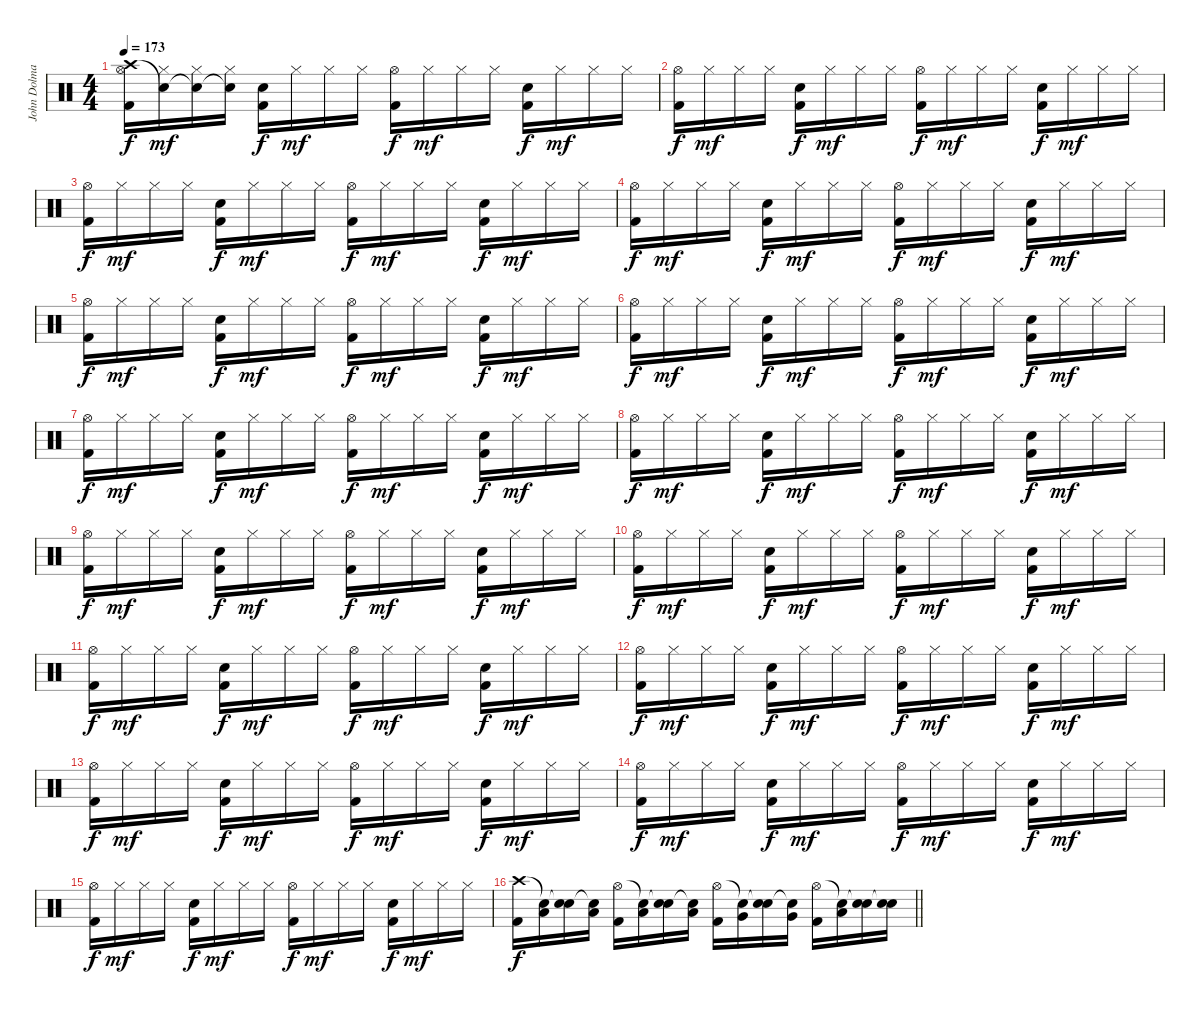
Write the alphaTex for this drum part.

\track ("John Dolmayan" "John Dolma") {instrument percussion}
\staff {score}
\articulation defaults
\ts (4 4)
\tempo 173
\clef neutral
\ks c
("Crash high (hit)" "Hi-Hat (open)" "Kick (hit) 2").16{dy f} ("Snare (hit)"{t} "Hi-Hat (closed)").16{dy mf} ("Snare (hit)"{t} "Hi-Hat (closed)").16 ("Snare (hit)"{t} "Hi-Hat (closed)").16 ("Electric Snare (hit)" "Kick (hit) 2").16{dy f} "Hi-Hat (closed)".16{dy mf} "Hi-Hat (closed)".16 "Hi-Hat (closed)".16 ("Hi-Hat (open)" "Kick (hit) 2").16{dy f} "Hi-Hat (closed)".16{dy mf} "Hi-Hat (closed)".16 "Hi-Hat (closed)".16 ("Electric Snare (hit)" "Kick (hit) 2").16{dy f} "Hi-Hat (closed)".16{dy mf} "Hi-Hat (closed)".16 "Hi-Hat (closed)".16 |
("Hi-Hat (open)" "Kick (hit) 2").16{dy f} "Hi-Hat (closed)".16{dy mf} "Hi-Hat (closed)".16 "Hi-Hat (closed)".16 ("Electric Snare (hit)" "Kick (hit) 2").16{dy f} "Hi-Hat (closed)".16{dy mf} "Hi-Hat (closed)".16 "Hi-Hat (closed)".16 ("Hi-Hat (open)" "Kick (hit) 2").16{dy f} "Hi-Hat (closed)".16{dy mf} "Hi-Hat (closed)".16 "Hi-Hat (closed)".16 ("Electric Snare (hit)" "Kick (hit) 2").16{dy f} "Hi-Hat (closed)".16{dy mf} "Hi-Hat (closed)".16 "Hi-Hat (closed)".16 |
("Hi-Hat (open)" "Kick (hit) 2").16{dy f} "Hi-Hat (closed)".16{dy mf} "Hi-Hat (closed)".16 "Hi-Hat (closed)".16 ("Electric Snare (hit)" "Kick (hit) 2").16{dy f} "Hi-Hat (closed)".16{dy mf} "Hi-Hat (closed)".16 "Hi-Hat (closed)".16 ("Hi-Hat (open)" "Kick (hit) 2").16{dy f} "Hi-Hat (closed)".16{dy mf} "Hi-Hat (closed)".16 "Hi-Hat (closed)".16 ("Electric Snare (hit)" "Kick (hit) 2").16{dy f} "Hi-Hat (closed)".16{dy mf} "Hi-Hat (closed)".16 "Hi-Hat (closed)".16 |
("Hi-Hat (open)" "Kick (hit) 2").16{dy f} "Hi-Hat (closed)".16{dy mf} "Hi-Hat (closed)".16 "Hi-Hat (closed)".16 ("Electric Snare (hit)" "Kick (hit) 2").16{dy f} "Hi-Hat (closed)".16{dy mf} "Hi-Hat (closed)".16 "Hi-Hat (closed)".16 ("Hi-Hat (open)" "Kick (hit) 2").16{dy f} "Hi-Hat (closed)".16{dy mf} "Hi-Hat (closed)".16 "Hi-Hat (closed)".16 ("Electric Snare (hit)" "Kick (hit) 2").16{dy f} "Hi-Hat (closed)".16{dy mf} "Hi-Hat (closed)".16 "Hi-Hat (closed)".16 |
("Hi-Hat (open)" "Kick (hit) 2").16{dy f} "Hi-Hat (closed)".16{dy mf} "Hi-Hat (closed)".16 "Hi-Hat (closed)".16 ("Electric Snare (hit)" "Kick (hit) 2").16{dy f} "Hi-Hat (closed)".16{dy mf} "Hi-Hat (closed)".16 "Hi-Hat (closed)".16 ("Hi-Hat (open)" "Kick (hit) 2").16{dy f} "Hi-Hat (closed)".16{dy mf} "Hi-Hat (closed)".16 "Hi-Hat (closed)".16 ("Electric Snare (hit)" "Kick (hit) 2").16{dy f} "Hi-Hat (closed)".16{dy mf} "Hi-Hat (closed)".16 "Hi-Hat (closed)".16 |
("Hi-Hat (open)" "Kick (hit) 2").16{dy f} "Hi-Hat (closed)".16{dy mf} "Hi-Hat (closed)".16 "Hi-Hat (closed)".16 ("Electric Snare (hit)" "Kick (hit) 2").16{dy f} "Hi-Hat (closed)".16{dy mf} "Hi-Hat (closed)".16 "Hi-Hat (closed)".16 ("Hi-Hat (open)" "Kick (hit) 2").16{dy f} "Hi-Hat (closed)".16{dy mf} "Hi-Hat (closed)".16 "Hi-Hat (closed)".16 ("Electric Snare (hit)" "Kick (hit) 2").16{dy f} "Hi-Hat (closed)".16{dy mf} "Hi-Hat (closed)".16 "Hi-Hat (closed)".16 |
("Hi-Hat (open)" "Kick (hit) 2").16{dy f} "Hi-Hat (closed)".16{dy mf} "Hi-Hat (closed)".16 "Hi-Hat (closed)".16 ("Electric Snare (hit)" "Kick (hit) 2").16{dy f} "Hi-Hat (closed)".16{dy mf} "Hi-Hat (closed)".16 "Hi-Hat (closed)".16 ("Hi-Hat (open)" "Kick (hit) 2").16{dy f} "Hi-Hat (closed)".16{dy mf} "Hi-Hat (closed)".16 "Hi-Hat (closed)".16 ("Electric Snare (hit)" "Kick (hit) 2").16{dy f} "Hi-Hat (closed)".16{dy mf} "Hi-Hat (closed)".16 "Hi-Hat (closed)".16 |
("Hi-Hat (open)" "Kick (hit) 2").16{dy f} "Hi-Hat (closed)".16{dy mf} "Hi-Hat (closed)".16 "Hi-Hat (closed)".16 ("Electric Snare (hit)" "Kick (hit) 2").16{dy f} "Hi-Hat (closed)".16{dy mf} "Hi-Hat (closed)".16 "Hi-Hat (closed)".16 ("Hi-Hat (open)" "Kick (hit) 2").16{dy f} "Hi-Hat (closed)".16{dy mf} "Hi-Hat (closed)".16 "Hi-Hat (closed)".16 ("Electric Snare (hit)" "Kick (hit) 2").16{dy f} "Hi-Hat (closed)".16{dy mf} "Hi-Hat (closed)".16 "Hi-Hat (closed)".16 |
("Hi-Hat (open)" "Kick (hit) 2").16{dy f} "Hi-Hat (closed)".16{dy mf} "Hi-Hat (closed)".16 "Hi-Hat (closed)".16 ("Electric Snare (hit)" "Kick (hit) 2").16{dy f} "Hi-Hat (closed)".16{dy mf} "Hi-Hat (closed)".16 "Hi-Hat (closed)".16 ("Hi-Hat (open)" "Kick (hit) 2").16{dy f} "Hi-Hat (closed)".16{dy mf} "Hi-Hat (closed)".16 "Hi-Hat (closed)".16 ("Electric Snare (hit)" "Kick (hit) 2").16{dy f} "Hi-Hat (closed)".16{dy mf} "Hi-Hat (closed)".16 "Hi-Hat (closed)".16 |
("Hi-Hat (open)" "Kick (hit) 2").16{dy f} "Hi-Hat (closed)".16{dy mf} "Hi-Hat (closed)".16 "Hi-Hat (closed)".16 ("Electric Snare (hit)" "Kick (hit) 2").16{dy f} "Hi-Hat (closed)".16{dy mf} "Hi-Hat (closed)".16 "Hi-Hat (closed)".16 ("Hi-Hat (open)" "Kick (hit) 2").16{dy f} "Hi-Hat (closed)".16{dy mf} "Hi-Hat (closed)".16 "Hi-Hat (closed)".16 ("Electric Snare (hit)" "Kick (hit) 2").16{dy f} "Hi-Hat (closed)".16{dy mf} "Hi-Hat (closed)".16 "Hi-Hat (closed)".16 |
("Hi-Hat (open)" "Kick (hit) 2").16{dy f} "Hi-Hat (closed)".16{dy mf} "Hi-Hat (closed)".16 "Hi-Hat (closed)".16 ("Electric Snare (hit)" "Kick (hit) 2").16{dy f} "Hi-Hat (closed)".16{dy mf} "Hi-Hat (closed)".16 "Hi-Hat (closed)".16 ("Hi-Hat (open)" "Kick (hit) 2").16{dy f} "Hi-Hat (closed)".16{dy mf} "Hi-Hat (closed)".16 "Hi-Hat (closed)".16 ("Electric Snare (hit)" "Kick (hit) 2").16{dy f} "Hi-Hat (closed)".16{dy mf} "Hi-Hat (closed)".16 "Hi-Hat (closed)".16 |
("Hi-Hat (open)" "Kick (hit) 2").16{dy f} "Hi-Hat (closed)".16{dy mf} "Hi-Hat (closed)".16 "Hi-Hat (closed)".16 ("Electric Snare (hit)" "Kick (hit) 2").16{dy f} "Hi-Hat (closed)".16{dy mf} "Hi-Hat (closed)".16 "Hi-Hat (closed)".16 ("Hi-Hat (open)" "Kick (hit) 2").16{dy f} "Hi-Hat (closed)".16{dy mf} "Hi-Hat (closed)".16 "Hi-Hat (closed)".16 ("Electric Snare (hit)" "Kick (hit) 2").16{dy f} "Hi-Hat (closed)".16{dy mf} "Hi-Hat (closed)".16 "Hi-Hat (closed)".16 |
("Hi-Hat (open)" "Kick (hit) 2").16{dy f} "Hi-Hat (closed)".16{dy mf} "Hi-Hat (closed)".16 "Hi-Hat (closed)".16 ("Electric Snare (hit)" "Kick (hit) 2").16{dy f} "Hi-Hat (closed)".16{dy mf} "Hi-Hat (closed)".16 "Hi-Hat (closed)".16 ("Hi-Hat (open)" "Kick (hit) 2").16{dy f} "Hi-Hat (closed)".16{dy mf} "Hi-Hat (closed)".16 "Hi-Hat (closed)".16 ("Electric Snare (hit)" "Kick (hit) 2").16{dy f} "Hi-Hat (closed)".16{dy mf} "Hi-Hat (closed)".16 "Hi-Hat (closed)".16 |
("Hi-Hat (open)" "Kick (hit) 2").16{dy f} "Hi-Hat (closed)".16{dy mf} "Hi-Hat (closed)".16 "Hi-Hat (closed)".16 ("Electric Snare (hit)" "Kick (hit) 2").16{dy f} "Hi-Hat (closed)".16{dy mf} "Hi-Hat (closed)".16 "Hi-Hat (closed)".16 ("Hi-Hat (open)" "Kick (hit) 2").16{dy f} "Hi-Hat (closed)".16{dy mf} "Hi-Hat (closed)".16 "Hi-Hat (closed)".16 ("Electric Snare (hit)" "Kick (hit) 2").16{dy f} "Hi-Hat (closed)".16{dy mf} "Hi-Hat (closed)".16 "Hi-Hat (closed)".16 |
("Hi-Hat (open)" "Kick (hit) 2").16{dy f} "Hi-Hat (closed)".16{dy mf} "Hi-Hat (closed)".16 "Hi-Hat (closed)".16 ("Electric Snare (hit)" "Kick (hit) 2").16{dy f} "Hi-Hat (closed)".16{dy mf} "Hi-Hat (closed)".16 "Hi-Hat (closed)".16 ("Hi-Hat (open)" "Kick (hit) 2").16{dy f} "Hi-Hat (closed)".16{dy mf} "Hi-Hat (closed)".16 "Hi-Hat (closed)".16 ("Electric Snare (hit)" "Kick (hit) 2").16{dy f} "Hi-Hat (closed)".16{dy mf} "Hi-Hat (closed)".16 "Hi-Hat (closed)".16 |
\barLineRight lightlight
("Crash high (hit)" "Kick (hit) 2").16{dy f} ("Snare (hit)"{t} "Low Tom (hit)").16 ("Snare (hit)"{t} "Electric Snare (hit)").16 ("Snare (hit)"{t} "Low Tom (hit)").16 ("Hi-Hat (open)" "Kick (hit) 2").16 ("Snare (hit)"{t} "Low Tom (hit)").16 ("Snare (hit)"{t} "Electric Snare (hit)").16 ("Snare (hit)"{t} "Low Tom (hit)").16 ("Hi-Hat (open)" "Kick (hit) 2").16 ("Snare (hit)"{t} "Very Low Tom (hit)").16 ("Snare (hit)"{t} "Electric Snare (hit)").16 ("Snare (hit)"{t} "Very Low Tom (hit)").16 ("Hi-Hat (open)" "Kick (hit) 2").16 ("Snare (hit)"{t} "Low Floor Tom (hit)").16 ("Snare (hit)"{t} "Electric Snare (hit)").16 ("Snare (hit)"{t} "Electric Snare (hit)").16
